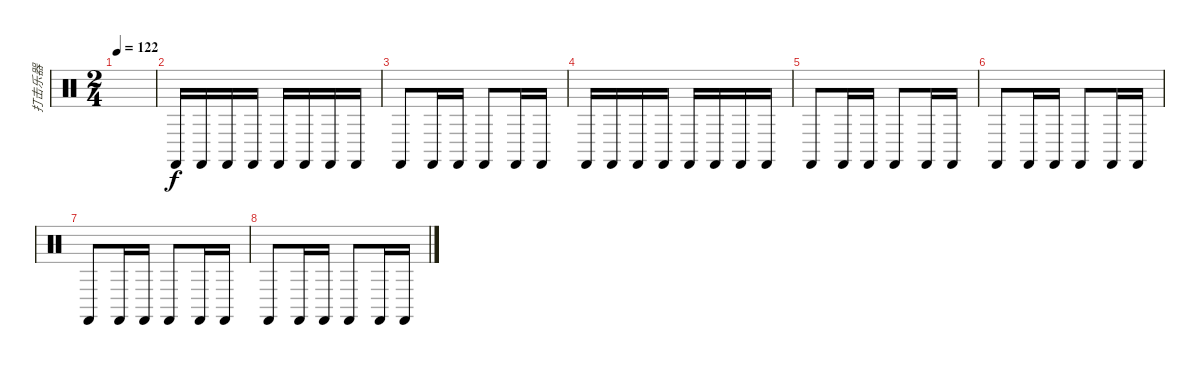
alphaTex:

\track ("打击乐器" "打击乐器") {instrument percussion}
\staff {score}
\articulation defaults
\ts (2 4)
\tempo 122
\clef neutral
\ks c
|
"Castanets (hit)".16 "Castanets (hit)".16 "Castanets (hit)".16 "Castanets (hit)".16 "Castanets (hit)".16 "Castanets (hit)".16 "Castanets (hit)".16 "Castanets (hit)".16 |
"Castanets (hit)".8 "Castanets (hit)".16 "Castanets (hit)".16 "Castanets (hit)".8 "Castanets (hit)".16 "Castanets (hit)".16 |
"Castanets (hit)".16 "Castanets (hit)".16 "Castanets (hit)".16 "Castanets (hit)".16 "Castanets (hit)".16 "Castanets (hit)".16 "Castanets (hit)".16 "Castanets (hit)".16 |
"Castanets (hit)".8 "Castanets (hit)".16 "Castanets (hit)".16 "Castanets (hit)".8 "Castanets (hit)".16 "Castanets (hit)".16 |
"Castanets (hit)".8 "Castanets (hit)".16 "Castanets (hit)".16 "Castanets (hit)".8 "Castanets (hit)".16 "Castanets (hit)".16 |
"Castanets (hit)".8 "Castanets (hit)".16 "Castanets (hit)".16 "Castanets (hit)".8 "Castanets (hit)".16 "Castanets (hit)".16 |
"Castanets (hit)".8 "Castanets (hit)".16 "Castanets (hit)".16 "Castanets (hit)".8 "Castanets (hit)".16 "Castanets (hit)".16
